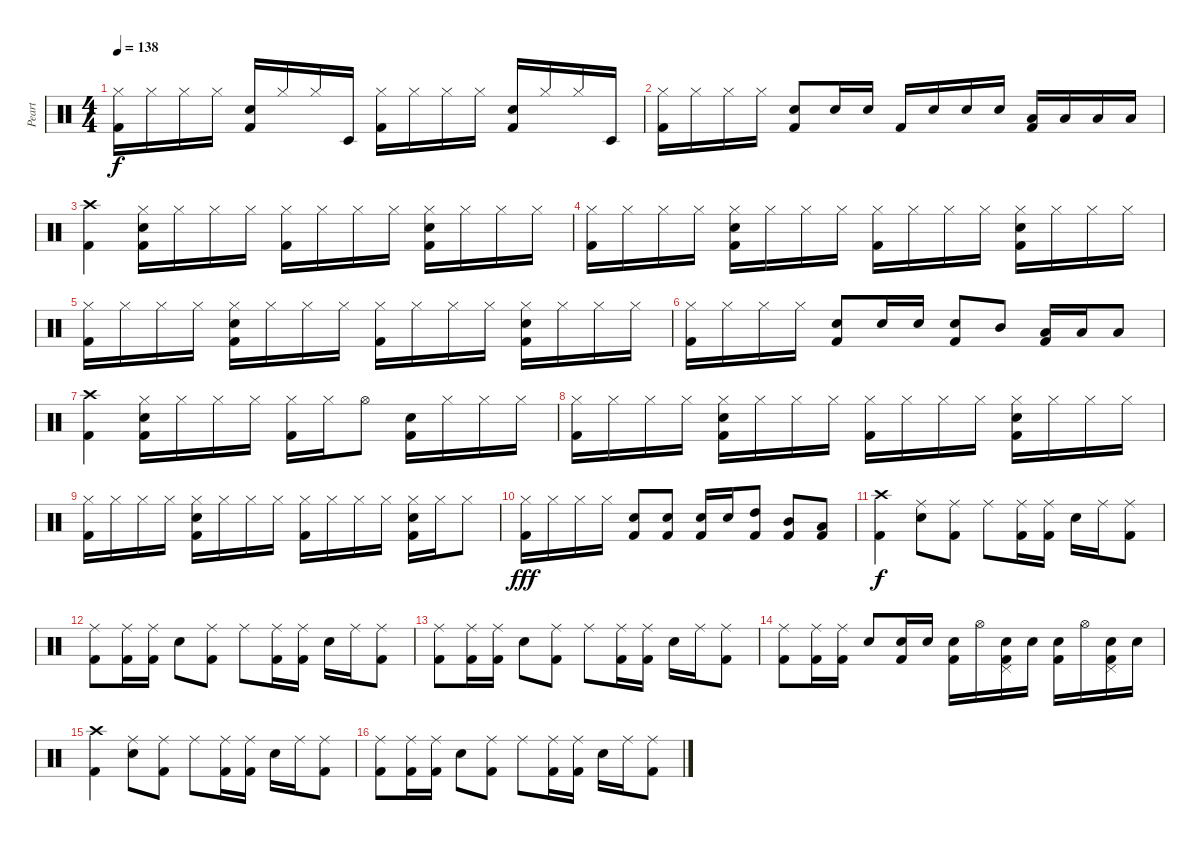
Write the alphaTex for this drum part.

\track ("Peart" "Peart") {instrument percussion}
\staff {score}
\articulation defaults
\ts (4 4)
\tempo 138
\clef neutral
\ks c
("Hi-Hat (closed)" "Kick (hit) 2").16{dy f} "Hi-Hat (closed)".16 "Hi-Hat (closed)".16 "Hi-Hat (closed)".16 ("Electric Snare (hit)" "Kick (hit) 2").16 "Hi-Hat (closed)".16 "Hi-Hat (closed)".16 "Timbale low (hit)".16 ("Hi-Hat (closed)" "Kick (hit) 2").16 "Hi-Hat (closed)".16 "Hi-Hat (closed)".16 "Hi-Hat (closed)".16 ("Electric Snare (hit)" "Kick (hit) 2").16 "Hi-Hat (closed)".16 "Hi-Hat (closed)".16 "Timbale low (hit)".16 |
("Hi-Hat (closed)" "Kick (hit) 2").16 "Hi-Hat (closed)".16 "Hi-Hat (closed)".16 "Hi-Hat (closed)".16 ("Electric Snare (hit)" "Kick (hit) 2").8 "Electric Snare (hit)".16 "Electric Snare (hit)".16 "Kick (hit) 2".16 "Electric Snare (hit)".16 "Electric Snare (hit)".16 "Electric Snare (hit)".16 ("Low Tom (hit)" "Kick (hit) 2").16 "Low Tom (hit)".16 "Low Floor Tom (hit)".16 "Low Floor Tom (hit)".16 |
("Crash high (hit)" "Kick (hit) 2").4 ("Hi-Hat (closed)" "Kick (hit) 2" "Electric Snare (hit)").16 "Hi-Hat (closed)".16 "Hi-Hat (closed)".16 "Hi-Hat (closed)".16 ("Hi-Hat (closed)" "Kick (hit) 2").16 "Hi-Hat (closed)".16 "Hi-Hat (closed)".16 "Hi-Hat (closed)".16 ("Hi-Hat (closed)" "Electric Snare (hit)" "Kick (hit) 2").16 "Hi-Hat (closed)".16 "Hi-Hat (closed)".16 "Hi-Hat (closed)".16 |
("Hi-Hat (closed)" "Kick (hit) 2").16 "Hi-Hat (closed)".16 "Hi-Hat (closed)".16 "Hi-Hat (closed)".16 ("Hi-Hat (closed)" "Electric Snare (hit)" "Kick (hit) 2").16 "Hi-Hat (closed)".16 "Hi-Hat (closed)".16 "Hi-Hat (closed)".16 ("Hi-Hat (closed)" "Kick (hit) 2").16 "Hi-Hat (closed)".16 "Hi-Hat (closed)".16 "Hi-Hat (closed)".16 ("Hi-Hat (closed)" "Electric Snare (hit)" "Kick (hit) 2").16 "Hi-Hat (closed)".16 "Hi-Hat (closed)".16 "Hi-Hat (closed)".16 |
("Hi-Hat (closed)" "Kick (hit) 2").16 "Hi-Hat (closed)".16 "Hi-Hat (closed)".16 "Hi-Hat (closed)".16 ("Hi-Hat (closed)" "Electric Snare (hit)" "Kick (hit) 2").16 "Hi-Hat (closed)".16 "Hi-Hat (closed)".16 "Hi-Hat (closed)".16 ("Hi-Hat (closed)" "Kick (hit) 2").16 "Hi-Hat (closed)".16 "Hi-Hat (closed)".16 "Hi-Hat (closed)".16 ("Hi-Hat (closed)" "Electric Snare (hit)" "Kick (hit) 2").16 "Hi-Hat (closed)".16 "Hi-Hat (closed)".16 "Hi-Hat (closed)".16 |
("Hi-Hat (closed)" "Kick (hit) 2").16 "Hi-Hat (closed)".16 "Hi-Hat (closed)".16 "Hi-Hat (closed)".16 ("Electric Snare (hit)" "Kick (hit) 2").8 "Electric Snare (hit)".16 "Electric Snare (hit)".16 ("Electric Snare (hit)" "Kick (hit) 2").8 "Mid Tom (hit)".8 ("Low Tom (hit)" "Kick (hit) 2").16 "Low Tom (hit)".16 "Low Tom (hit)".8 |
("Crash high (hit)" "Kick (hit) 2").4 ("Hi-Hat (closed)" "Kick (hit) 2" "Electric Snare (hit)").16 "Hi-Hat (closed)".16 "Hi-Hat (closed)".16 "Hi-Hat (closed)".16 ("Hi-Hat (closed)" "Kick (hit) 2").16 "Hi-Hat (closed)".16 "Hi-Hat (open)".8 ("Electric Snare (hit)" "Kick (hit) 2").16 "Hi-Hat (closed)".16 "Hi-Hat (closed)".16 "Hi-Hat (closed)".16 |
("Hi-Hat (closed)" "Kick (hit) 2").16 "Hi-Hat (closed)".16 "Hi-Hat (closed)".16 "Hi-Hat (closed)".16 ("Hi-Hat (closed)" "Electric Snare (hit)" "Kick (hit) 2").16 "Hi-Hat (closed)".16 "Hi-Hat (closed)".16 "Hi-Hat (closed)".16 ("Hi-Hat (closed)" "Kick (hit) 2").16 "Hi-Hat (closed)".16 "Hi-Hat (closed)".16 "Hi-Hat (closed)".16 ("Hi-Hat (closed)" "Electric Snare (hit)" "Kick (hit) 2").16 "Hi-Hat (closed)".16 "Hi-Hat (closed)".16 "Hi-Hat (closed)".16 |
("Hi-Hat (closed)" "Kick (hit) 2").16 "Hi-Hat (closed)".16 "Hi-Hat (closed)".16 "Hi-Hat (closed)".16 ("Hi-Hat (closed)" "Electric Snare (hit)" "Kick (hit) 2").16 "Hi-Hat (closed)".16 "Hi-Hat (closed)".16 "Hi-Hat (closed)".16 ("Hi-Hat (closed)" "Kick (hit) 2").16 "Hi-Hat (closed)".16 "Hi-Hat (closed)".16 "Hi-Hat (closed)".16 ("Hi-Hat (closed)" "Electric Snare (hit)" "Kick (hit) 2").16 "Hi-Hat (closed)".16 "Hi-Hat (closed)".8 |
("Hi-Hat (closed)" "Kick (hit) 2").16{dy fff} "Hi-Hat (closed)".16 "Hi-Hat (closed)".16 "Hi-Hat (closed)".16 ("Electric Snare (hit)" "Kick (hit) 2").8 ("Electric Snare (hit)" "Kick (hit) 2").8 ("Electric Snare (hit)" "Kick (hit) 2").16 "Electric Snare (hit)".16 ("High Tom (hit)" "Kick (hit) 2").8 ("Mid Tom (hit)" "Kick (hit) 2").8 ("Low Tom (hit)" "Kick (hit) 2").8 |
("Crash high (hit)" "Kick (hit) 2").4{dy f} ("Ride (middle)" "Electric Snare (hit)").8 ("Ride (middle)" "Kick (hit) 2").8 "Ride (middle)".8 ("Ride (middle)" "Kick (hit) 2").16 ("Ride (middle)" "Kick (hit) 2").16 "Electric Snare (hit)".16 "Ride (middle)".16 ("Ride (middle)" "Kick (hit) 2").8 |
("Ride (middle)" "Kick (hit) 2").8 ("Ride (middle)" "Kick (hit) 2").16 ("Ride (middle)" "Kick (hit) 2").16 "Electric Snare (hit)".8 ("Ride (middle)" "Kick (hit) 2").8 "Ride (middle)".8 ("Ride (middle)" "Kick (hit) 2").16 ("Ride (middle)" "Kick (hit) 2").16 "Electric Snare (hit)".16 "Ride (middle)".16 ("Ride (middle)" "Kick (hit) 2").8 |
("Ride (middle)" "Kick (hit) 2").8 ("Ride (middle)" "Kick (hit) 2").16 ("Ride (middle)" "Kick (hit) 2").16 "Electric Snare (hit)".8 ("Ride (middle)" "Kick (hit) 2").8 "Ride (middle)".8 ("Ride (middle)" "Kick (hit) 2").16 ("Ride (middle)" "Kick (hit) 2").16 "Electric Snare (hit)".16 "Ride (middle)".16 ("Ride (middle)" "Kick (hit) 2").8 |
("Ride (middle)" "Kick (hit) 2").8 ("Ride (middle)" "Kick (hit) 2").16 ("Ride (middle)" "Kick (hit) 2").16 "Electric Snare (hit)".8 ("Electric Snare (hit)" "Kick (hit) 2").16 "Electric Snare (hit)".16 ("Electric Snare (hit)" "Kick (hit) 2").16 "Hi-Hat (open)".16 ("Pedal Hi-Hat (hit)" "Electric Snare (hit)" "Kick (hit) 2").16 "Electric Snare (hit)".16 ("Electric Snare (hit)" "Kick (hit) 2").16 "Hi-Hat (open)".16 ("Pedal Hi-Hat (hit)" "Electric Snare (hit)" "Kick (hit) 2").16 "Electric Snare (hit)".16 |
("Crash high (hit)" "Kick (hit) 2").4 ("Ride (middle)" "Electric Snare (hit)").8 ("Ride (middle)" "Kick (hit) 2").8 "Ride (middle)".8 ("Ride (middle)" "Kick (hit) 2").16 ("Ride (middle)" "Kick (hit) 2").16 "Electric Snare (hit)".16 "Ride (middle)".16 ("Ride (middle)" "Kick (hit) 2").8 |
("Ride (middle)" "Kick (hit) 2").8 ("Ride (middle)" "Kick (hit) 2").16 ("Ride (middle)" "Kick (hit) 2").16 "Electric Snare (hit)".8 ("Ride (middle)" "Kick (hit) 2").8 "Ride (middle)".8 ("Ride (middle)" "Kick (hit) 2").16 ("Ride (middle)" "Kick (hit) 2").16 "Electric Snare (hit)".16 "Ride (middle)".16 ("Ride (middle)" "Kick (hit) 2").8
